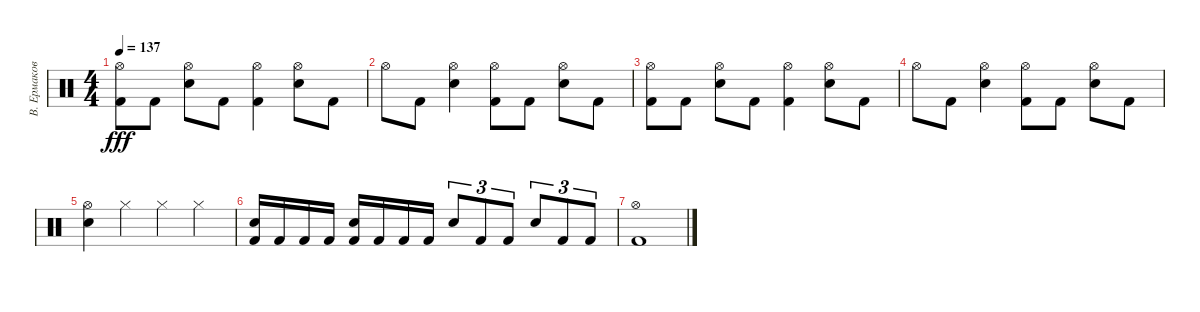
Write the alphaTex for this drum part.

\track ("В. Ермаков" "В. Ермаков") {instrument percussion}
\staff {score}
\articulation defaults
\ts (4 4)
\tempo 137
\clef neutral
\ks c
("Kick (hit) 2" "Hi-Hat (open)").8{dy fff} "Kick (hit) 2".8 ("Snare (hit) 2" "Hi-Hat (open)").8 "Kick (hit) 2".8 ("Kick (hit) 2" "Hi-Hat (open)").4 ("Snare (hit) 2" "Hi-Hat (open)").8 "Kick (hit) 2".8 |
"Hi-Hat (open)".8 "Kick (hit) 2".8 ("Hi-Hat (open)" "Snare (hit) 2").4 ("Hi-Hat (open)" "Kick (hit) 2").8 "Kick (hit) 2".8 ("Hi-Hat (open)" "Snare (hit) 2").8 "Kick (hit) 2".8 |
("Kick (hit) 2" "Hi-Hat (open)").8 "Kick (hit) 2".8 ("Snare (hit) 2" "Hi-Hat (open)").8 "Kick (hit) 2".8 ("Kick (hit) 2" "Hi-Hat (open)").4 ("Snare (hit) 2" "Hi-Hat (open)").8 "Kick (hit) 2".8 |
"Hi-Hat (open)".8 "Kick (hit) 2".8 ("Hi-Hat (open)" "Snare (hit) 2").4 ("Hi-Hat (open)" "Kick (hit) 2").8 "Kick (hit) 2".8 ("Hi-Hat (open)" "Snare (hit) 2").8 "Kick (hit) 2".8 |
("Hi-Hat (open)" "Snare (hit) 2").4 "Hi-Hat (closed)".4 "Hi-Hat (closed)".4 "Hi-Hat (closed)".4 |
("Snare (hit) 2" "Kick (hit) 2").16 "Kick (hit) 2".16 "Kick (hit) 2".16 "Kick (hit) 2".16 ("Snare (hit) 2" "Kick (hit) 2").16 "Kick (hit) 2".16 "Kick (hit) 2".16 "Kick (hit) 2".16 "Snare (hit) 2".8{tu (3 2)} "Kick (hit) 2".8{tu (3 2)} "Kick (hit) 2".8{tu (3 2)} "Snare (hit) 2".8{tu (3 2)} "Kick (hit) 2".8{tu (3 2)} "Kick (hit) 2".8{tu (3 2)} |
("Kick (hit) 2" "Hi-Hat (open)").1
